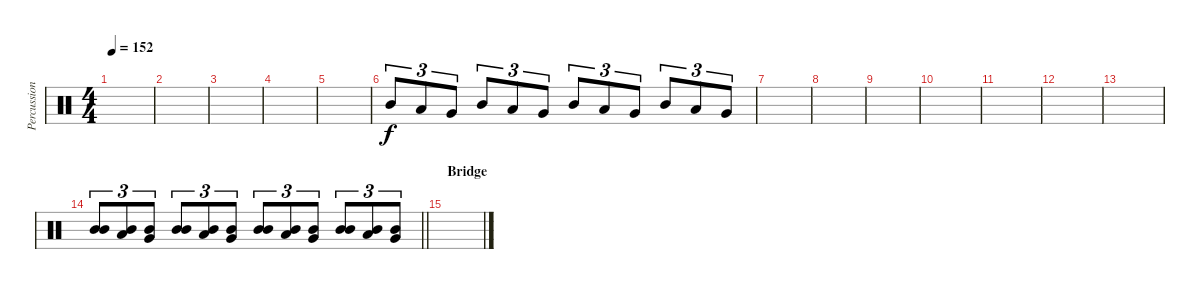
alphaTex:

\track ("Percussion" "Percussion") {instrument percussion}
\staff {score}
\articulation defaults
\ts (4 4)
\tempo 152
\clef neutral
\ks c
|
|
|
|
|
"Mid Tom (hit)".8{tu (3 2)} "Low Tom (hit)".8{tu (3 2)} "Very Low Tom (hit)".8{tu (3 2)} "Mid Tom (hit)".8{tu (3 2)} "Low Tom (hit)".8{tu (3 2)} "Very Low Tom (hit)".8{tu (3 2)} "Mid Tom (hit)".8{tu (3 2)} "Low Tom (hit)".8{tu (3 2)} "Very Low Tom (hit)".8{tu (3 2)} "Mid Tom (hit)".8{tu (3 2)} "Low Tom (hit)".8{tu (3 2)} "Very Low Tom (hit)".8{tu (3 2)} |
|
|
|
|
|
|
|
\barLineRight lightlight
("Mid Tom (hit)" "Mid Tom (hit)").8{tu (3 2)} ("Mid Tom (hit)" "Low Tom (hit)").8{tu (3 2)} ("Mid Tom (hit)" "Very Low Tom (hit)").8{tu (3 2)} ("Mid Tom (hit)" "Mid Tom (hit)").8{tu (3 2)} ("Mid Tom (hit)" "Low Tom (hit)").8{tu (3 2)} ("Mid Tom (hit)" "Very Low Tom (hit)").8{tu (3 2)} ("Mid Tom (hit)" "Mid Tom (hit)").8{tu (3 2)} ("Mid Tom (hit)" "Low Tom (hit)").8{tu (3 2)} ("Mid Tom (hit)" "Very Low Tom (hit)").8{tu (3 2)} ("Mid Tom (hit)" "Mid Tom (hit)").8{tu (3 2)} ("Mid Tom (hit)" "Low Tom (hit)").8{tu (3 2)} ("Mid Tom (hit)" "Very Low Tom (hit)").8{tu (3 2)} |
\section ("" "Bridge")
